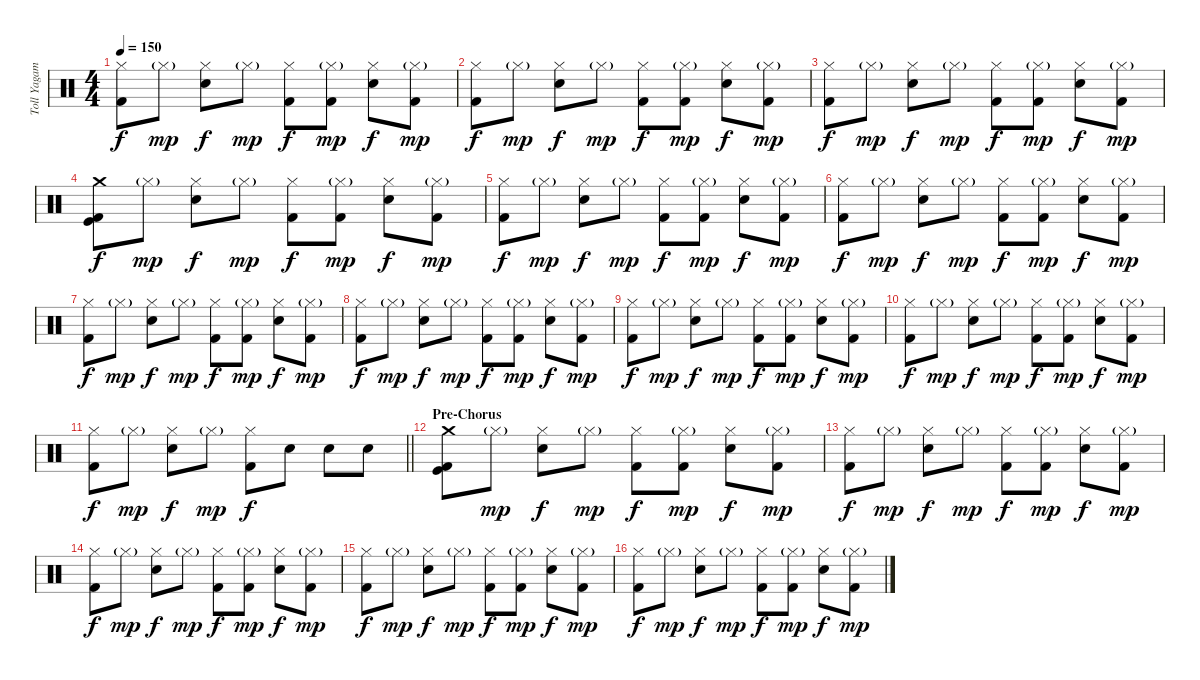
\track ("Toll Yagami" "Toll Yagam") {instrument percussion}
\staff {score}
\articulation defaults
\ts (4 4)
\tempo 150
\clef neutral
\ks c
("Hi-Hat (closed)" "Kick (hit) 2").8{dy f} "Hi-Hat (closed)"{g}.8{dy mp} ("Hi-Hat (closed)" "Electric Snare (hit)").8{dy f} "Hi-Hat (closed)"{g}.8{dy mp} ("Hi-Hat (closed)" "Kick (hit) 2").8{dy f} ("Hi-Hat (closed)"{g} "Kick (hit) 2").8{dy mp} ("Hi-Hat (closed)" "Electric Snare (hit)").8{dy f} ("Hi-Hat (closed)"{g} "Kick (hit) 2").8{dy mp} |
("Hi-Hat (closed)" "Kick (hit) 2").8{dy f} "Hi-Hat (closed)"{g}.8{dy mp} ("Hi-Hat (closed)" "Electric Snare (hit)").8{dy f} "Hi-Hat (closed)"{g}.8{dy mp} ("Hi-Hat (closed)" "Kick (hit) 2").8{dy f} ("Hi-Hat (closed)"{g} "Kick (hit) 2").8{dy mp} ("Hi-Hat (closed)" "Electric Snare (hit)").8{dy f} ("Hi-Hat (closed)"{g} "Kick (hit) 2").8{dy mp} |
("Hi-Hat (closed)" "Kick (hit) 2").8{dy f} "Hi-Hat (closed)"{g}.8{dy mp} ("Hi-Hat (closed)" "Electric Snare (hit)").8{dy f} "Hi-Hat (closed)"{g}.8{dy mp} ("Hi-Hat (closed)" "Kick (hit) 2").8{dy f} ("Hi-Hat (closed)"{g} "Kick (hit) 2").8{dy mp} ("Hi-Hat (closed)" "Electric Snare (hit)").8{dy f} ("Hi-Hat (closed)"{g} "Kick (hit) 2").8{dy mp} |
("Crash medium (hit)" "Kick (hit) 2" "Kick (hit)").8{dy f} "Hi-Hat (closed)"{g}.8{dy mp} ("Hi-Hat (closed)" "Electric Snare (hit)").8{dy f} "Hi-Hat (closed)"{g}.8{dy mp} ("Hi-Hat (closed)" "Kick (hit) 2").8{dy f} ("Hi-Hat (closed)"{g} "Kick (hit) 2").8{dy mp} ("Hi-Hat (closed)" "Electric Snare (hit)").8{dy f} ("Hi-Hat (closed)"{g} "Kick (hit) 2").8{dy mp} |
("Hi-Hat (closed)" "Kick (hit) 2").8{dy f} "Hi-Hat (closed)"{g}.8{dy mp} ("Hi-Hat (closed)" "Electric Snare (hit)").8{dy f} "Hi-Hat (closed)"{g}.8{dy mp} ("Hi-Hat (closed)" "Kick (hit) 2").8{dy f} ("Hi-Hat (closed)"{g} "Kick (hit) 2").8{dy mp} ("Hi-Hat (closed)" "Electric Snare (hit)").8{dy f} ("Hi-Hat (closed)"{g} "Kick (hit) 2").8{dy mp} |
("Hi-Hat (closed)" "Kick (hit) 2").8{dy f} "Hi-Hat (closed)"{g}.8{dy mp} ("Hi-Hat (closed)" "Electric Snare (hit)").8{dy f} "Hi-Hat (closed)"{g}.8{dy mp} ("Hi-Hat (closed)" "Kick (hit) 2").8{dy f} ("Hi-Hat (closed)"{g} "Kick (hit) 2").8{dy mp} ("Hi-Hat (closed)" "Electric Snare (hit)").8{dy f} ("Hi-Hat (closed)"{g} "Kick (hit) 2").8{dy mp} |
("Hi-Hat (closed)" "Kick (hit) 2").8{dy f} "Hi-Hat (closed)"{g}.8{dy mp} ("Hi-Hat (closed)" "Electric Snare (hit)").8{dy f} "Hi-Hat (closed)"{g}.8{dy mp} ("Hi-Hat (closed)" "Kick (hit) 2").8{dy f} ("Hi-Hat (closed)"{g} "Kick (hit) 2").8{dy mp} ("Hi-Hat (closed)" "Electric Snare (hit)").8{dy f} ("Hi-Hat (closed)"{g} "Kick (hit) 2").8{dy mp} |
("Hi-Hat (closed)" "Kick (hit) 2").8{dy f} "Hi-Hat (closed)"{g}.8{dy mp} ("Hi-Hat (closed)" "Electric Snare (hit)").8{dy f} "Hi-Hat (closed)"{g}.8{dy mp} ("Hi-Hat (closed)" "Kick (hit) 2").8{dy f} ("Hi-Hat (closed)"{g} "Kick (hit) 2").8{dy mp} ("Hi-Hat (closed)" "Electric Snare (hit)").8{dy f} ("Hi-Hat (closed)"{g} "Kick (hit) 2").8{dy mp} |
("Hi-Hat (closed)" "Kick (hit) 2").8{dy f} "Hi-Hat (closed)"{g}.8{dy mp} ("Hi-Hat (closed)" "Electric Snare (hit)").8{dy f} "Hi-Hat (closed)"{g}.8{dy mp} ("Hi-Hat (closed)" "Kick (hit) 2").8{dy f} ("Hi-Hat (closed)"{g} "Kick (hit) 2").8{dy mp} ("Hi-Hat (closed)" "Electric Snare (hit)").8{dy f} ("Hi-Hat (closed)"{g} "Kick (hit) 2").8{dy mp} |
("Hi-Hat (closed)" "Kick (hit) 2").8{dy f} "Hi-Hat (closed)"{g}.8{dy mp} ("Hi-Hat (closed)" "Electric Snare (hit)").8{dy f} "Hi-Hat (closed)"{g}.8{dy mp} ("Hi-Hat (closed)" "Kick (hit) 2").8{dy f} ("Hi-Hat (closed)"{g} "Kick (hit) 2").8{dy mp} ("Hi-Hat (closed)" "Electric Snare (hit)").8{dy f} ("Hi-Hat (closed)"{g} "Kick (hit) 2").8{dy mp} |
\barLineRight lightlight
("Hi-Hat (closed)" "Kick (hit) 2").8{dy f} "Hi-Hat (closed)"{g}.8{dy mp} ("Hi-Hat (closed)" "Electric Snare (hit)").8{dy f} "Hi-Hat (closed)"{g}.8{dy mp} ("Hi-Hat (closed)" "Kick (hit) 2").8{dy f} "Electric Snare (hit)".8 "Electric Snare (hit)".8 "Electric Snare (hit)".8 |
\section ("" "Pre-Chorus")
("Crash medium (hit)" "Kick (hit) 2" "Kick (hit)").8 "Hi-Hat (closed)"{g}.8{dy mp} ("Hi-Hat (closed)" "Electric Snare (hit)").8{dy f} "Hi-Hat (closed)"{g}.8{dy mp} ("Hi-Hat (closed)" "Kick (hit) 2").8{dy f} ("Hi-Hat (closed)"{g} "Kick (hit) 2").8{dy mp} ("Hi-Hat (closed)" "Electric Snare (hit)").8{dy f} ("Hi-Hat (closed)"{g} "Kick (hit) 2").8{dy mp} |
("Hi-Hat (closed)" "Kick (hit) 2").8{dy f} "Hi-Hat (closed)"{g}.8{dy mp} ("Hi-Hat (closed)" "Electric Snare (hit)").8{dy f} "Hi-Hat (closed)"{g}.8{dy mp} ("Hi-Hat (closed)" "Kick (hit) 2").8{dy f} ("Hi-Hat (closed)"{g} "Kick (hit) 2").8{dy mp} ("Hi-Hat (closed)" "Electric Snare (hit)").8{dy f} ("Hi-Hat (closed)"{g} "Kick (hit) 2").8{dy mp} |
("Hi-Hat (closed)" "Kick (hit) 2").8{dy f} "Hi-Hat (closed)"{g}.8{dy mp} ("Hi-Hat (closed)" "Electric Snare (hit)").8{dy f} "Hi-Hat (closed)"{g}.8{dy mp} ("Hi-Hat (closed)" "Kick (hit) 2").8{dy f} ("Hi-Hat (closed)"{g} "Kick (hit) 2").8{dy mp} ("Hi-Hat (closed)" "Electric Snare (hit)").8{dy f} ("Hi-Hat (closed)"{g} "Kick (hit) 2").8{dy mp} |
("Hi-Hat (closed)" "Kick (hit) 2").8{dy f} "Hi-Hat (closed)"{g}.8{dy mp} ("Hi-Hat (closed)" "Electric Snare (hit)").8{dy f} "Hi-Hat (closed)"{g}.8{dy mp} ("Hi-Hat (closed)" "Kick (hit) 2").8{dy f} ("Hi-Hat (closed)"{g} "Kick (hit) 2").8{dy mp} ("Hi-Hat (closed)" "Electric Snare (hit)").8{dy f} ("Hi-Hat (closed)"{g} "Kick (hit) 2").8{dy mp} |
("Hi-Hat (closed)" "Kick (hit) 2").8{dy f} "Hi-Hat (closed)"{g}.8{dy mp} ("Hi-Hat (closed)" "Electric Snare (hit)").8{dy f} "Hi-Hat (closed)"{g}.8{dy mp} ("Hi-Hat (closed)" "Kick (hit) 2").8{dy f} ("Hi-Hat (closed)"{g} "Kick (hit) 2").8{dy mp} ("Hi-Hat (closed)" "Electric Snare (hit)").8{dy f} ("Hi-Hat (closed)"{g} "Kick (hit) 2").8{dy mp}
